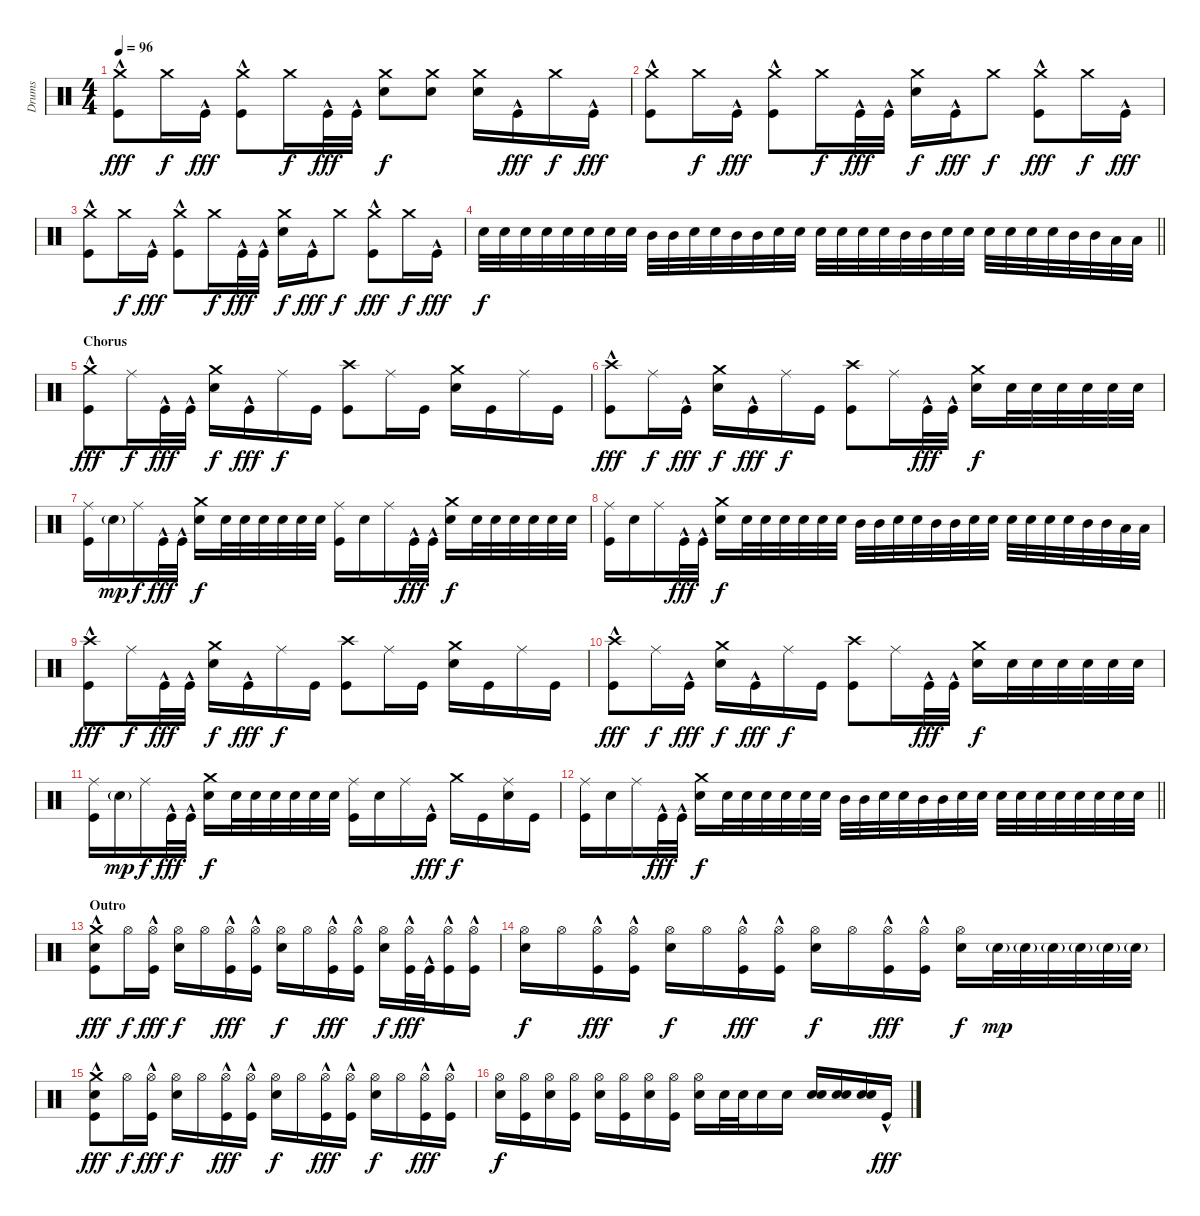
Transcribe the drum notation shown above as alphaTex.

\track ("Drums" "Drums") {instrument percussion}
\staff {score}
\articulation defaults
\ts (4 4)
\tempo 96
\clef neutral
\ks c
("Crash medium (hit)" "Kick (hit)"{hac}).8{dy fff} "Crash medium (hit)".16{dy f} "Kick (hit)"{hac}.16{dy fff} ("Crash medium (hit)" "Kick (hit)"{hac}).8 "Crash medium (hit)".16{dy f} "Kick (hit)"{hac}.32{dy fff} "Kick (hit)"{hac}.32 ("Crash medium (hit)" "Electric Snare (hit)").8{dy f} ("Crash medium (hit)" "Electric Snare (hit)").8 ("Crash medium (hit)" "Electric Snare (hit)").16 "Kick (hit)"{hac}.16{dy fff} "Crash medium (hit)".16{dy f} "Kick (hit)"{hac}.16{dy fff} |
("Crash medium (hit)" "Kick (hit)"{hac}).8 "Crash medium (hit)".16{dy f} "Kick (hit)"{hac}.16{dy fff} ("Crash medium (hit)" "Kick (hit)"{hac}).8 "Crash medium (hit)".16{dy f} "Kick (hit)"{hac}.32{dy fff} "Kick (hit)"{hac}.32 ("Crash medium (hit)" "Electric Snare (hit)").16{dy f} "Kick (hit)"{hac}.16{dy fff} "Crash medium (hit)".8{dy f} ("Crash medium (hit)" "Kick (hit)"{hac}).8{dy fff} "Crash medium (hit)".16{dy f} "Kick (hit)"{hac}.16{dy fff} |
("Crash medium (hit)" "Kick (hit)"{hac}).8 "Crash medium (hit)".16{dy f} "Kick (hit)"{hac}.16{dy fff} ("Crash medium (hit)" "Kick (hit)"{hac}).8 "Crash medium (hit)".16{dy f} "Kick (hit)"{hac}.32{dy fff} "Kick (hit)"{hac}.32 ("Crash medium (hit)" "Electric Snare (hit)").16{dy f} "Kick (hit)"{hac}.16{dy fff} "Crash medium (hit)".8{dy f} ("Crash medium (hit)" "Kick (hit)"{hac}).8{dy fff} "Crash medium (hit)".16{dy f} "Kick (hit)"{hac}.16{dy fff} |
\barLineRight lightlight "Electric Snare (hit)".32{dy f} "Electric Snare (hit)".32 "Electric Snare (hit)".32 "Electric Snare (hit)".32 "Electric Snare (hit)".32 "Electric Snare (hit)".32 "Electric Snare (hit)".32 "Electric Snare (hit)".32 "Mid Tom (hit)".32 "Mid Tom (hit)".32 "Electric Snare (hit)".32 "Electric Snare (hit)".32 "Mid Tom (hit)".32 "Mid Tom (hit)".32 "Electric Snare (hit)".32 "Electric Snare (hit)".32 "Electric Snare (hit)".32 "Electric Snare (hit)".32 "Electric Snare (hit)".32 "Electric Snare (hit)".32 "Mid Tom (hit)".32 "Mid Tom (hit)".32 "Electric Snare (hit)".32 "Electric Snare (hit)".32 "Electric Snare (hit)".32 "Electric Snare (hit)".32 "Electric Snare (hit)".32 "Electric Snare (hit)".32 "Mid Tom (hit)".32 "Mid Tom (hit)".32 "Low Tom (hit)".32 "Low Tom (hit)".32
|
\section ("" "Chorus")
("Crash medium (hit)" "Kick (hit)"{hac}).8{dy fff} "Ride (middle)".16{dy f} "Kick (hit)"{hac}.32{dy fff} "Kick (hit)"{hac}.32 ("Crash medium (hit)" "Electric Snare (hit)").16{dy f} "Kick (hit)"{hac}.16{dy fff} "Ride (middle)".16{dy f} "Kick (hit)".16 ("Crash high (hit)" "Kick (hit)").8 "Ride (middle)".16 "Kick (hit)".16 ("Crash medium (hit)" "Electric Snare (hit)").16 "Kick (hit)".16 "Ride (middle)".16 "Kick (hit)".16 |
("Crash high (hit)" "Kick (hit)"{hac}).8{dy fff} "Ride (middle)".16{dy f} "Kick (hit)"{hac}.16{dy fff} ("Crash medium (hit)" "Electric Snare (hit)").16{dy f} "Kick (hit)"{hac}.16{dy fff} "Ride (middle)".16{dy f} "Kick (hit)".16 ("Crash high (hit)" "Kick (hit)").8 "Ride (middle)".16 "Kick (hit)"{hac}.32{dy fff} "Kick (hit)"{hac}.32 ("Crash medium (hit)" "Electric Snare (hit)").16{dy f} "Electric Snare (hit)".32 "Electric Snare (hit)".32 "Electric Snare (hit)".32 "Electric Snare (hit)".32 "Electric Snare (hit)".32 "Electric Snare (hit)".32 |
("Ride (middle)" "Kick (hit)").16 "Electric Snare (hit)"{g}.16{dy mp} "Ride (middle)".16{dy f} "Kick (hit)"{hac}.32{dy fff} "Kick (hit)"{hac}.32 ("Crash medium (hit)" "Electric Snare (hit)").16{dy f} "Electric Snare (hit)".32 "Electric Snare (hit)".32 "Electric Snare (hit)".32 "Electric Snare (hit)".32 "Electric Snare (hit)".32 "Electric Snare (hit)".32 ("Ride (middle)" "Kick (hit)").16 "Electric Snare (hit)".16 "Ride (middle)".16 "Kick (hit)"{hac}.32{dy fff} "Kick (hit)"{hac}.32 ("Crash medium (hit)" "Electric Snare (hit)").16{dy f} "Electric Snare (hit)".32 "Electric Snare (hit)".32 "Electric Snare (hit)".32 "Electric Snare (hit)".32 "Electric Snare (hit)".32 "Electric Snare (hit)".32 |
("Ride (middle)" "Kick (hit)").16 "Electric Snare (hit)".16 "Ride (middle)".16 "Kick (hit)"{hac}.32{dy fff} "Kick (hit)"{hac}.32 ("Crash medium (hit)" "Electric Snare (hit)").16{dy f} "Electric Snare (hit)".32 "Electric Snare (hit)".32 "Electric Snare (hit)".32 "Electric Snare (hit)".32 "Electric Snare (hit)".32 "Electric Snare (hit)".32 "Mid Tom (hit)".32 "Mid Tom (hit)".32 "Electric Snare (hit)".32 "Electric Snare (hit)".32 "Mid Tom (hit)".32 "Mid Tom (hit)".32 "Electric Snare (hit)".32 "Electric Snare (hit)".32 "Electric Snare (hit)".32 "Electric Snare (hit)".32 "Electric Snare (hit)".32 "Electric Snare (hit)".32 "Mid Tom (hit)".32 "Mid Tom (hit)".32 "Low Tom (hit)".32 "Low Tom (hit)".32 |
("Crash high (hit)" "Kick (hit)"{hac}).8{dy fff} "Ride (middle)".16{dy f} "Kick (hit)"{hac}.32{dy fff} "Kick (hit)"{hac}.32 ("Crash medium (hit)" "Electric Snare (hit)").16{dy f} "Kick (hit)"{hac}.16{dy fff} "Ride (middle)".16{dy f} "Kick (hit)".16 ("Crash high (hit)" "Kick (hit)").8 "Ride (middle)".16 "Kick (hit)".16 ("Crash medium (hit)" "Electric Snare (hit)").16 "Kick (hit)".16 "Ride (middle)".16 "Kick (hit)".16 |
("Crash high (hit)" "Kick (hit)"{hac}).8{dy fff} "Ride (middle)".16{dy f} "Kick (hit)"{hac}.16{dy fff} ("Crash medium (hit)" "Electric Snare (hit)").16{dy f} "Kick (hit)"{hac}.16{dy fff} "Ride (middle)".16{dy f} "Kick (hit)".16 ("Crash high (hit)" "Kick (hit)").8 "Ride (middle)".16 "Kick (hit)"{hac}.32{dy fff} "Kick (hit)"{hac}.32 ("Crash medium (hit)" "Electric Snare (hit)").16{dy f} "Electric Snare (hit)".32 "Electric Snare (hit)".32 "Electric Snare (hit)".32 "Electric Snare (hit)".32 "Electric Snare (hit)".32 "Electric Snare (hit)".32 |
("Ride (middle)" "Kick (hit)").16 "Electric Snare (hit)"{g}.16{dy mp} "Ride (middle)".16{dy f} "Kick (hit)"{hac}.32{dy fff} "Kick (hit)"{hac}.32 ("Crash medium (hit)" "Electric Snare (hit)").16{dy f} "Electric Snare (hit)".32 "Electric Snare (hit)".32 "Electric Snare (hit)".32 "Electric Snare (hit)".32 "Electric Snare (hit)".32 "Electric Snare (hit)".32 ("Ride (middle)" "Kick (hit)").16 "Electric Snare (hit)".16 "Ride (middle)".16 "Kick (hit)"{hac}.16{dy fff} "Crash medium (hit)".16{dy f} "Kick (hit)".16 ("Ride (middle)" "Electric Snare (hit)").16 "Kick (hit)".16 |
\barLineRight lightlight
("Ride (middle)" "Kick (hit)").16 "Electric Snare (hit)".16 "Ride (middle)".16 "Kick (hit)"{hac}.32{dy fff} "Kick (hit)"{hac}.32 ("Crash medium (hit)" "Electric Snare (hit)").16{dy f} "Electric Snare (hit)".32 "Electric Snare (hit)".32 "Electric Snare (hit)".32 "Electric Snare (hit)".32 "Electric Snare (hit)".32 "Electric Snare (hit)".32 "Mid Tom (hit)".32 "Mid Tom (hit)".32 "Electric Snare (hit)".32 "Electric Snare (hit)".32 "Mid Tom (hit)".32 "Mid Tom (hit)".32 "Electric Snare (hit)".32 "Electric Snare (hit)".32 "Electric Snare (hit)".32 "Electric Snare (hit)".32 "Electric Snare (hit)".32 "Electric Snare (hit)".32 "Electric Snare (hit)".32 "Electric Snare (hit)".32 "Electric Snare (hit)".32 "Electric Snare (hit)".32 |
\section ("" "Outro")
("Crash medium (hit)" "Electric Snare (hit)" "Kick (hit)"{hac}).8{dy fff} "Hi-Hat (open)".16{dy f} ("Hi-Hat (open)" "Kick (hit)"{hac}).16{dy fff} ("Hi-Hat (open)" "Electric Snare (hit)").16{dy f} "Hi-Hat (open)".16 ("Hi-Hat (open)" "Kick (hit)"{hac}).16{dy fff} ("Hi-Hat (open)" "Kick (hit)"{hac}).16 ("Hi-Hat (open)" "Electric Snare (hit)").16{dy f} "Hi-Hat (open)".16 ("Hi-Hat (open)" "Kick (hit)"{hac}).16{dy fff} ("Hi-Hat (open)" "Kick (hit)"{hac}).16 ("Hi-Hat (open)" "Electric Snare (hit)").16{dy f} ("Hi-Hat (open)" "Kick (hit)"{hac}).32{dy fff} "Kick (hit)"{hac}.32 ("Hi-Hat (open)" "Kick (hit)"{hac}).16 ("Hi-Hat (open)" "Kick (hit)"{hac}).16 |
("Hi-Hat (open)" "Electric Snare (hit)").16{dy f} "Hi-Hat (open)".16 ("Hi-Hat (open)" "Kick (hit)"{hac}).16{dy fff} ("Hi-Hat (open)" "Kick (hit)"{hac}).16 ("Hi-Hat (open)" "Electric Snare (hit)").16{dy f} "Hi-Hat (open)".16 ("Hi-Hat (open)" "Kick (hit)"{hac}).16{dy fff} ("Hi-Hat (open)" "Kick (hit)"{hac}).16 ("Hi-Hat (open)" "Electric Snare (hit)").16{dy f} "Hi-Hat (open)".16 ("Hi-Hat (open)" "Kick (hit)"{hac}).16{dy fff} ("Hi-Hat (open)" "Kick (hit)"{hac}).16 ("Hi-Hat (open)" "Electric Snare (hit)").16{dy f} "Electric Snare (hit)"{g}.32{dy mp} "Electric Snare (hit)"{g}.32 "Electric Snare (hit)"{g}.32 "Electric Snare (hit)"{g}.32 "Electric Snare (hit)"{g}.32 "Electric Snare (hit)"{g}.32 |
("Crash medium (hit)" "Electric Snare (hit)" "Kick (hit)"{hac}).8{dy fff} "Hi-Hat (open)".16{dy f} ("Hi-Hat (open)" "Kick (hit)"{hac}).16{dy fff} ("Hi-Hat (open)" "Electric Snare (hit)").16{dy f} "Hi-Hat (open)".16 ("Hi-Hat (open)" "Kick (hit)"{hac}).16{dy fff} ("Hi-Hat (open)" "Kick (hit)"{hac}).16 ("Hi-Hat (open)" "Electric Snare (hit)").16{dy f} "Hi-Hat (open)".16 ("Hi-Hat (open)" "Kick (hit)"{hac}).16{dy fff} ("Hi-Hat (open)" "Kick (hit)"{hac}).16 ("Hi-Hat (open)" "Electric Snare (hit)").16{dy f} "Hi-Hat (open)".16 ("Hi-Hat (open)" "Kick (hit)"{hac}).16{dy fff} ("Hi-Hat (open)" "Kick (hit)"{hac}).16 |
("Hi-Hat (open)" "Electric Snare (hit)").16{dy f} ("Hi-Hat (open)" "Kick (hit)").16 ("Hi-Hat (open)" "Electric Snare (hit)").16 ("Hi-Hat (open)" "Kick (hit)").16 ("Hi-Hat (open)" "Electric Snare (hit)").16 ("Hi-Hat (open)" "Kick (hit)").16 ("Hi-Hat (open)" "Electric Snare (hit)").16 ("Hi-Hat (open)" "Kick (hit)").16 ("Hi-Hat (open)" "Electric Snare (hit)").16 "Electric Snare (hit)".32 "Electric Snare (hit)".32 "Electric Snare (hit)".16 "Electric Snare (hit)".16 ("Electric Snare (hit)" "Electric Snare (hit)").16 ("Electric Snare (hit)" "Electric Snare (hit)").16 ("Electric Snare (hit)" "Electric Snare (hit)").16 "Kick (hit)"{hac}.16{dy fff}
